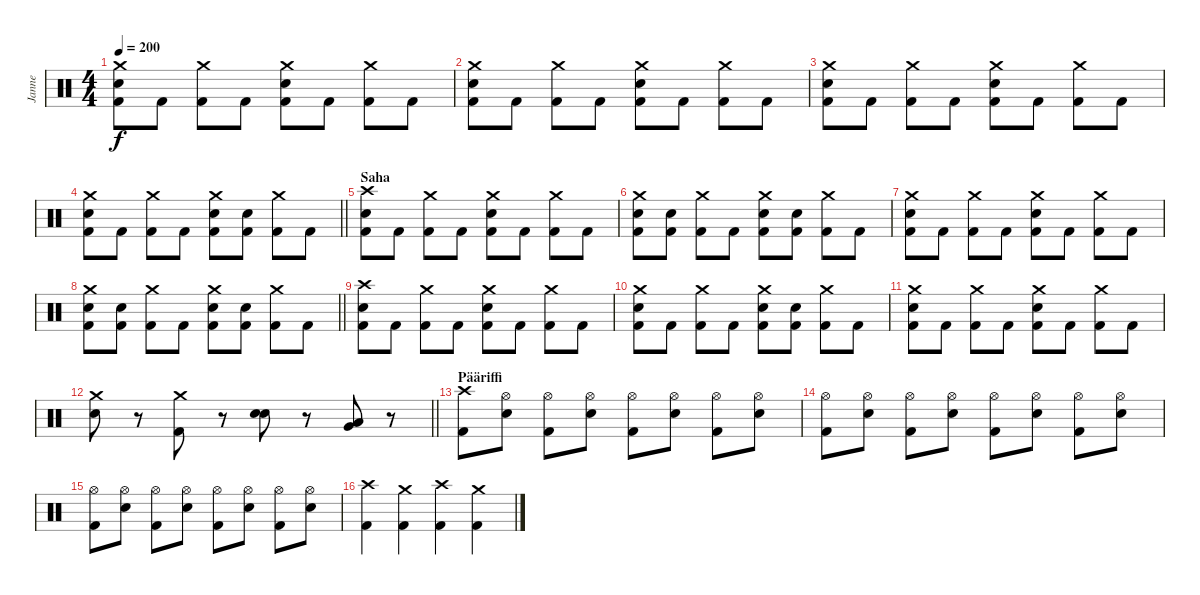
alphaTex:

\track ("Janne" "Janne") {instrument percussion}
\staff {score}
\articulation defaults
\ts (4 4)
\tempo 200
\clef neutral
\ks c
("Crash medium (hit)" "Electric Snare (hit)" "Kick (hit) 2").8{dy f} "Kick (hit) 2".8 ("Crash medium (hit)" "Kick (hit) 2").8 "Kick (hit) 2".8 ("Crash medium (hit)" "Electric Snare (hit)" "Kick (hit) 2").8 "Kick (hit) 2".8 ("Crash medium (hit)" "Kick (hit) 2").8 "Kick (hit) 2".8 |
("Crash medium (hit)" "Electric Snare (hit)" "Kick (hit) 2").8 "Kick (hit) 2".8 ("Crash medium (hit)" "Kick (hit) 2").8 "Kick (hit) 2".8 ("Crash medium (hit)" "Electric Snare (hit)" "Kick (hit) 2").8 "Kick (hit) 2".8 ("Crash medium (hit)" "Kick (hit) 2").8 "Kick (hit) 2".8 |
("Crash medium (hit)" "Electric Snare (hit)" "Kick (hit) 2").8 "Kick (hit) 2".8 ("Crash medium (hit)" "Kick (hit) 2").8 "Kick (hit) 2".8 ("Crash medium (hit)" "Electric Snare (hit)" "Kick (hit) 2").8 "Kick (hit) 2".8 ("Crash medium (hit)" "Kick (hit) 2").8 "Kick (hit) 2".8 |
\barLineRight lightlight
("Crash medium (hit)" "Electric Snare (hit)" "Kick (hit) 2").8 "Kick (hit) 2".8 ("Crash medium (hit)" "Kick (hit) 2").8 "Kick (hit) 2".8 ("Crash medium (hit)" "Electric Snare (hit)" "Kick (hit) 2").8 ("Electric Snare (hit)" "Kick (hit) 2").8 ("Crash medium (hit)" "Kick (hit) 2").8 "Kick (hit) 2".8 |
\section ("" "Saha")
("Crash high (hit)" "Electric Snare (hit)" "Kick (hit) 2").8 "Kick (hit) 2".8 ("Crash medium (hit)" "Kick (hit) 2").8 "Kick (hit) 2".8 ("Crash medium (hit)" "Electric Snare (hit)" "Kick (hit) 2").8 "Kick (hit) 2".8 ("Crash medium (hit)" "Kick (hit) 2").8 "Kick (hit) 2".8 |
("Crash medium (hit)" "Electric Snare (hit)" "Kick (hit) 2").8 ("Electric Snare (hit)" "Kick (hit) 2").8 ("Crash medium (hit)" "Kick (hit) 2").8 "Kick (hit) 2".8 ("Crash medium (hit)" "Electric Snare (hit)" "Kick (hit) 2").8 ("Electric Snare (hit)" "Kick (hit) 2").8 ("Crash medium (hit)" "Kick (hit) 2").8 "Kick (hit) 2".8 |
("Crash medium (hit)" "Electric Snare (hit)" "Kick (hit) 2").8 "Kick (hit) 2".8 ("Crash medium (hit)" "Kick (hit) 2").8 "Kick (hit) 2".8 ("Crash medium (hit)" "Electric Snare (hit)" "Kick (hit) 2").8 "Kick (hit) 2".8 ("Crash medium (hit)" "Kick (hit) 2").8 "Kick (hit) 2".8 |
\barLineRight lightlight
("Crash medium (hit)" "Electric Snare (hit)" "Kick (hit) 2").8 ("Electric Snare (hit)" "Kick (hit) 2").8 ("Crash medium (hit)" "Kick (hit) 2").8 "Kick (hit) 2".8 ("Crash medium (hit)" "Electric Snare (hit)" "Kick (hit) 2").8 ("Electric Snare (hit)" "Kick (hit) 2").8 ("Crash medium (hit)" "Kick (hit) 2").8 "Kick (hit) 2".8 |
("Crash high (hit)" "Electric Snare (hit)" "Kick (hit) 2").8 "Kick (hit) 2".8 ("Crash medium (hit)" "Kick (hit) 2").8 "Kick (hit) 2".8 ("Crash medium (hit)" "Electric Snare (hit)" "Kick (hit) 2").8 "Kick (hit) 2".8 ("Crash medium (hit)" "Kick (hit) 2").8 "Kick (hit) 2".8 |
("Crash medium (hit)" "Electric Snare (hit)" "Kick (hit) 2").8 "Kick (hit) 2".8 ("Crash medium (hit)" "Kick (hit) 2").8 "Kick (hit) 2".8 ("Crash medium (hit)" "Electric Snare (hit)" "Kick (hit) 2").8 ("Electric Snare (hit)" "Kick (hit) 2").8 ("Crash medium (hit)" "Kick (hit) 2").8 "Kick (hit) 2".8 |
("Crash medium (hit)" "Electric Snare (hit)" "Kick (hit) 2").8 "Kick (hit) 2".8 ("Crash medium (hit)" "Kick (hit) 2").8 "Kick (hit) 2".8 ("Crash medium (hit)" "Electric Snare (hit)" "Kick (hit) 2").8 "Kick (hit) 2".8 ("Crash medium (hit)" "Kick (hit) 2").8 "Kick (hit) 2".8 |
\barLineRight lightlight
("Crash medium (hit)" "Electric Snare (hit)").8 r.8 ("Crash medium (hit)" "Kick (hit) 2").8 r.8 ("Electric Snare (hit)" "Electric Snare (hit)").8 r.8 ("Very Low Tom (hit)" "Low Floor Tom (hit)").8 r.8 |
\section ("" "Pääriffi")
("Crash high (hit)" "Kick (hit) 2").8 ("Hi-Hat (open)" "Electric Snare (hit)").8 ("Hi-Hat (open)" "Kick (hit) 2").8 ("Hi-Hat (open)" "Electric Snare (hit)").8 ("Hi-Hat (open)" "Kick (hit) 2").8 ("Hi-Hat (open)" "Electric Snare (hit)").8 ("Hi-Hat (open)" "Kick (hit) 2").8 ("Hi-Hat (open)" "Electric Snare (hit)").8 |
("Hi-Hat (open)" "Kick (hit) 2").8 ("Hi-Hat (open)" "Electric Snare (hit)").8 ("Hi-Hat (open)" "Kick (hit) 2").8 ("Hi-Hat (open)" "Electric Snare (hit)").8 ("Hi-Hat (open)" "Kick (hit) 2").8 ("Hi-Hat (open)" "Electric Snare (hit)").8 ("Hi-Hat (open)" "Kick (hit) 2").8 ("Hi-Hat (open)" "Electric Snare (hit)").8 |
("Hi-Hat (open)" "Kick (hit) 2").8 ("Hi-Hat (open)" "Electric Snare (hit)").8 ("Hi-Hat (open)" "Kick (hit) 2").8 ("Hi-Hat (open)" "Electric Snare (hit)").8 ("Hi-Hat (open)" "Kick (hit) 2").8 ("Hi-Hat (open)" "Electric Snare (hit)").8 ("Hi-Hat (open)" "Kick (hit) 2").8 ("Hi-Hat (open)" "Electric Snare (hit)").8 |
("Crash high (hit)" "Kick (hit) 2").4 ("Crash medium (hit)" "Kick (hit) 2").4 ("Crash high (hit)" "Kick (hit) 2").4 ("Crash medium (hit)" "Kick (hit) 2").4
